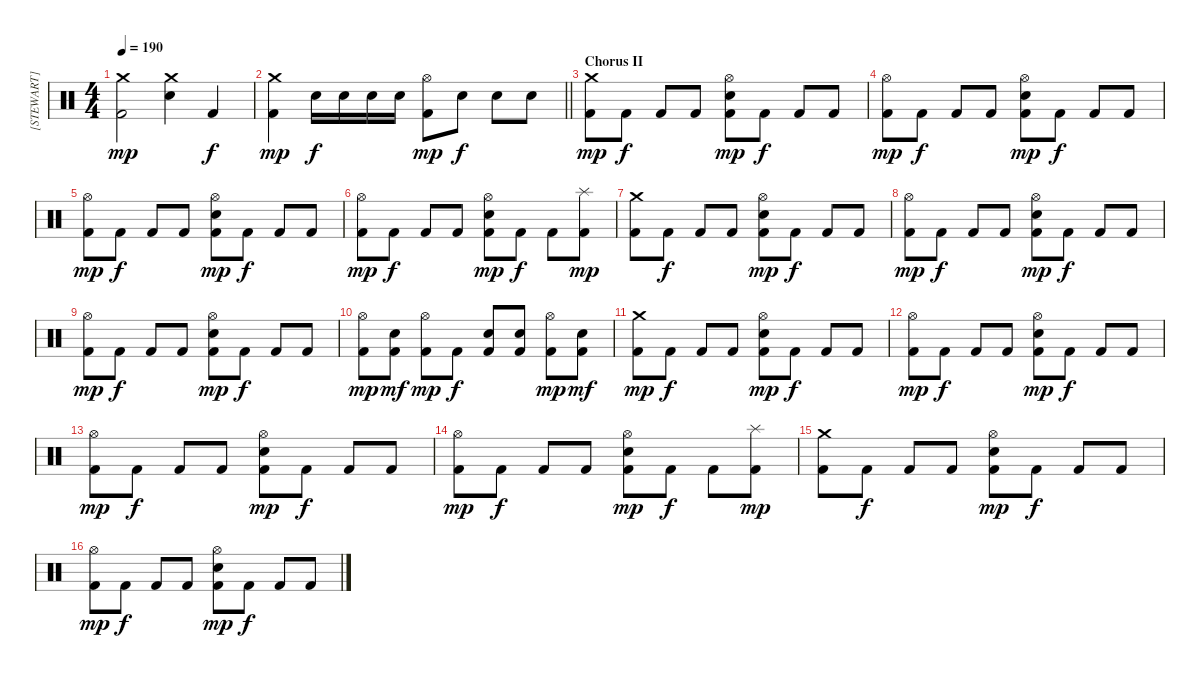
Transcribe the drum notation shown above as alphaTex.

\track ("[STEWART]" "[STEWART]") {instrument percussion}
\staff {score}
\articulation defaults
\ts (4 4)
\tempo 190
\clef neutral
\ks c
("Crash medium (hit)" "Kick (hit) 2").2{dy mp} ("Crash medium (hit)" "Electric Snare (hit)").4 "Kick (hit) 2".4{dy f} |
\barLineRight lightlight
("Crash medium (hit)" "Kick (hit) 2").4{dy mp} "Electric Snare (hit)".16{dy f} "Electric Snare (hit)".16 "Electric Snare (hit)".16 "Electric Snare (hit)".16 ("Hi-Hat (open)" "Kick (hit) 2").8{dy mp} "Electric Snare (hit)".8{dy f} "Electric Snare (hit)".8 "Electric Snare (hit)".8 |
\section ("" "Chorus II")
("Crash medium (hit)" "Kick (hit) 2").8{dy mp} "Kick (hit) 2".8{dy f} "Kick (hit) 2".8 "Kick (hit) 2".8 ("Hi-Hat (open)" "Electric Snare (hit)" "Kick (hit) 2").8{dy mp} "Kick (hit) 2".8{dy f} "Kick (hit) 2".8 "Kick (hit) 2".8 |
("Hi-Hat (open)" "Kick (hit) 2").8{dy mp} "Kick (hit) 2".8{dy f} "Kick (hit) 2".8 "Kick (hit) 2".8 ("Hi-Hat (open)" "Electric Snare (hit)" "Kick (hit) 2").8{dy mp} "Kick (hit) 2".8{dy f} "Kick (hit) 2".8 "Kick (hit) 2".8 |
("Hi-Hat (open)" "Kick (hit) 2").8{dy mp} "Kick (hit) 2".8{dy f} "Kick (hit) 2".8 "Kick (hit) 2".8 ("Hi-Hat (open)" "Electric Snare (hit)" "Kick (hit) 2").8{dy mp} "Kick (hit) 2".8{dy f} "Kick (hit) 2".8 "Kick (hit) 2".8 |
("Hi-Hat (open)" "Kick (hit) 2").8{dy mp} "Kick (hit) 2".8{dy f} "Kick (hit) 2".8 "Kick (hit) 2".8 ("Hi-Hat (open)" "Electric Snare (hit)" "Kick (hit) 2").8{dy mp} "Kick (hit) 2".8{dy f} "Kick (hit) 2".8 ("Splash (hit)" "Kick (hit) 2").8{dy mp} |
("Crash medium (hit)" "Kick (hit) 2").8 "Kick (hit) 2".8{dy f} "Kick (hit) 2".8 "Kick (hit) 2".8 ("Hi-Hat (open)" "Electric Snare (hit)" "Kick (hit) 2").8{dy mp} "Kick (hit) 2".8{dy f} "Kick (hit) 2".8 "Kick (hit) 2".8 |
("Hi-Hat (open)" "Kick (hit) 2").8{dy mp} "Kick (hit) 2".8{dy f} "Kick (hit) 2".8 "Kick (hit) 2".8 ("Hi-Hat (open)" "Electric Snare (hit)" "Kick (hit) 2").8{dy mp} "Kick (hit) 2".8{dy f} "Kick (hit) 2".8 "Kick (hit) 2".8 |
("Hi-Hat (open)" "Kick (hit) 2").8{dy mp} "Kick (hit) 2".8{dy f} "Kick (hit) 2".8 "Kick (hit) 2".8 ("Hi-Hat (open)" "Electric Snare (hit)" "Kick (hit) 2").8{dy mp} "Kick (hit) 2".8{dy f} "Kick (hit) 2".8 "Kick (hit) 2".8 |
("Hi-Hat (open)" "Kick (hit) 2").8{dy mp} ("Electric Snare (hit)" "Kick (hit) 2").8{dy mf} ("Hi-Hat (open)" "Kick (hit) 2").8{dy mp} "Kick (hit) 2".8{dy f} ("Electric Snare (hit)" "Kick (hit) 2").8 ("Electric Snare (hit)" "Kick (hit) 2").8 ("Hi-Hat (open)" "Kick (hit) 2").8{dy mp} ("Electric Snare (hit)" "Kick (hit) 2").8{dy mf} |
("Crash medium (hit)" "Kick (hit) 2").8{dy mp} "Kick (hit) 2".8{dy f} "Kick (hit) 2".8 "Kick (hit) 2".8 ("Hi-Hat (open)" "Electric Snare (hit)" "Kick (hit) 2").8{dy mp} "Kick (hit) 2".8{dy f} "Kick (hit) 2".8 "Kick (hit) 2".8 |
("Hi-Hat (open)" "Kick (hit) 2").8{dy mp} "Kick (hit) 2".8{dy f} "Kick (hit) 2".8 "Kick (hit) 2".8 ("Hi-Hat (open)" "Electric Snare (hit)" "Kick (hit) 2").8{dy mp} "Kick (hit) 2".8{dy f} "Kick (hit) 2".8 "Kick (hit) 2".8 |
("Hi-Hat (open)" "Kick (hit) 2").8{dy mp} "Kick (hit) 2".8{dy f} "Kick (hit) 2".8 "Kick (hit) 2".8 ("Hi-Hat (open)" "Electric Snare (hit)" "Kick (hit) 2").8{dy mp} "Kick (hit) 2".8{dy f} "Kick (hit) 2".8 "Kick (hit) 2".8 |
("Hi-Hat (open)" "Kick (hit) 2").8{dy mp} "Kick (hit) 2".8{dy f} "Kick (hit) 2".8 "Kick (hit) 2".8 ("Hi-Hat (open)" "Electric Snare (hit)" "Kick (hit) 2").8{dy mp} "Kick (hit) 2".8{dy f} "Kick (hit) 2".8 ("Splash (hit)" "Kick (hit) 2").8{dy mp} |
("Crash medium (hit)" "Kick (hit) 2").8 "Kick (hit) 2".8{dy f} "Kick (hit) 2".8 "Kick (hit) 2".8 ("Hi-Hat (open)" "Electric Snare (hit)" "Kick (hit) 2").8{dy mp} "Kick (hit) 2".8{dy f} "Kick (hit) 2".8 "Kick (hit) 2".8 |
("Hi-Hat (open)" "Kick (hit) 2").8{dy mp} "Kick (hit) 2".8{dy f} "Kick (hit) 2".8 "Kick (hit) 2".8 ("Hi-Hat (open)" "Electric Snare (hit)" "Kick (hit) 2").8{dy mp} "Kick (hit) 2".8{dy f} "Kick (hit) 2".8 "Kick (hit) 2".8
